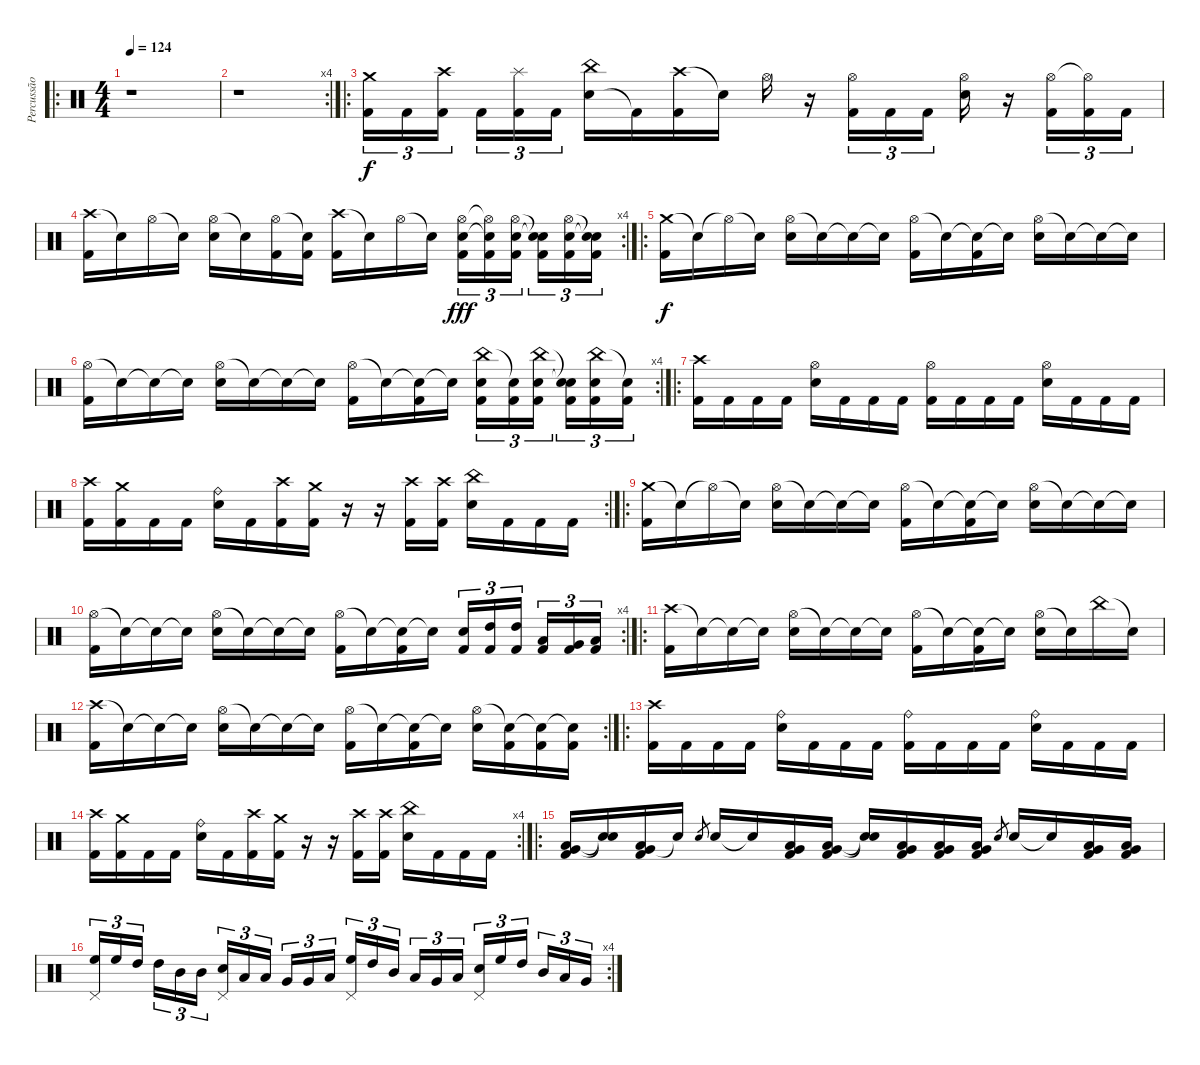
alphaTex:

\track ("Percussão" "Percussão") {instrument percussion}
\staff {score}
\articulation defaults
\ro
\ts (4 4)
\tempo 124
\clef neutral
\ks c
r.1{dy f volume 16} |
\rc 4
r.1 |
\ro
("Kick (hit) 2" "Crash medium (hit)").16{tu (3 2)} "Kick (hit) 2".16{tu (3 2)} ("Kick (hit) 2" "Crash high (hit)").16{tu (3 2)} "Kick (hit) 2".16{tu (3 2)} ("Kick (hit) 2" "Splash (hit)").16{tu (3 2)} "Kick (hit) 2".16{tu (3 2)} ("Electric Snare (hit)" "China (hit)").16 "Kick (hit) 2"{t}.16 ("Crash high (hit)" "Kick (hit) 2").16 "Snare (hit)"{t}.16 "Hi-Hat (open)".16 r.16 ("Hi-Hat (open)" "Kick (hit) 2").16{tu (3 2)} "Kick (hit) 2".16{tu (3 2)} "Kick (hit) 2".16{tu (3 2)} ("Hi-Hat (open)" "Electric Snare (hit)").16 r.16 ("Hi-Hat (open)" "Kick (hit) 2").16{tu (3 2)} ("Hi-Hat (open)"{t} "Kick (hit) 2").16{tu (3 2)} "Kick (hit) 2".16{tu (3 2)} |
\rc 4
("Crash high (hit)" "Kick (hit) 2").16 "Snare (hit)"{t}.16 "Hi-Hat (open)".16 "Snare (hit)"{t}.16 ("Hi-Hat (open)" "Electric Snare (hit)").16 "Snare (hit)"{t}.16 ("Hi-Hat (open)" "Kick (hit) 2").16 ("Snare (hit)"{t} "Kick (hit) 2").16 ("Crash high (hit)" "Kick (hit) 2").16 "Snare (hit)"{t}.16 "Hi-Hat (open)".16 "Snare (hit)"{t}.16 ("Electric Snare (hit)" "Hi-Hat (open)" "Kick (hit) 2").16{tu (3 2) dy fff} ("Electric Snare (hit)"{t} "Hi-Hat (open)"{t} "Kick (hit) 2").16{tu (3 2)} ("Electric Snare (hit)" "Hi-Hat (open)" "Kick (hit) 2").16{tu (3 2)} ("Snare (hit)"{t} "Snare (hit)"{t} "Kick (hit) 2").16{tu (3 2)} ("Electric Snare (hit)" "Hi-Hat (open)" "Kick (hit) 2").16{tu (3 2)} ("Snare (hit)"{t} "Snare (hit)"{t} "Kick (hit) 2").16{tu (3 2)} |
\ro
("Crash medium (hit)" "Kick (hit) 2").16{dy f} "Snare (hit)"{t}.16 "Hi-Hat (open)"{t}.16 "Snare (hit)"{t}.16 ("Hi-Hat (open)" "Electric Snare (hit)").16 "Snare (hit)"{t}.16 "Snare (hit)"{t}.16 "Snare (hit)"{t}.16 ("Hi-Hat (open)" "Kick (hit) 2").16 "Snare (hit)"{t}.16 ("Snare (hit)"{t} "Kick (hit) 2").16 "Snare (hit)"{t}.16 ("Hi-Hat (open)" "Electric Snare (hit)").16 "Snare (hit)"{t}.16 "Snare (hit)"{t}.16 "Snare (hit)"{t}.16 |
\rc 4
("Hi-Hat (open)" "Kick (hit) 2").16 "Snare (hit)"{t}.16 "Snare (hit)"{t}.16 "Snare (hit)"{t}.16 ("Hi-Hat (open)" "Electric Snare (hit)").16 "Snare (hit)"{t}.16 "Snare (hit)"{t}.16 "Snare (hit)"{t}.16 ("Hi-Hat (open)" "Kick (hit) 2").16 "Snare (hit)"{t}.16 ("Snare (hit)"{t} "Kick (hit) 2").16 "Snare (hit)"{t}.16 ("China (hit)" "Electric Snare (hit)" "Kick (hit) 2").16{tu (3 2)} ("Snare (hit)"{t} "Kick (hit) 2").16{tu (3 2)} ("China (hit)" "Electric Snare (hit)" "Kick (hit) 2").16{tu (3 2)} ("Snare (hit)"{t} "Snare (hit)"{t} "Kick (hit) 2").16{tu (3 2)} ("China (hit)" "Electric Snare (hit)" "Kick (hit) 2").16{tu (3 2)} ("Snare (hit)"{t} "Kick (hit) 2").16{tu (3 2)} |
\ro
("Crash high (hit)" "Kick (hit) 2").16 "Kick (hit) 2".16 "Kick (hit) 2".16 "Kick (hit) 2".16 ("Hi-Hat (open)" "Electric Snare (hit)").16 "Kick (hit) 2".16 "Kick (hit) 2".16 "Kick (hit) 2".16 ("Hi-Hat (open)" "Kick (hit) 2").16 "Kick (hit) 2".16 "Kick (hit) 2".16 "Kick (hit) 2".16 ("Hi-Hat (open)" "Electric Snare (hit)").16 "Kick (hit) 2".16 "Kick (hit) 2".16 "Kick (hit) 2".16 |
\rc 2
("Crash high (hit)" "Kick (hit) 2").16 ("Crash medium (hit)" "Kick (hit) 2").16 "Kick (hit) 2".16 "Kick (hit) 2".16 ("Ride (bell)" "Electric Snare (hit)").16 "Kick (hit) 2".16 ("Crash high (hit)" "Kick (hit) 2").16 ("Crash medium (hit)" "Kick (hit) 2").16 r.16 r.16 ("Crash high (hit)" "Kick (hit) 2").16 ("Crash high (hit)" "Kick (hit) 2").16 ("China (hit)" "Electric Snare (hit)").16 "Kick (hit) 2".16 "Kick (hit) 2".16 "Kick (hit) 2".16 |
\ro
("Crash medium (hit)" "Kick (hit) 2").16 "Snare (hit)"{t}.16 "Hi-Hat (open)"{t}.16 "Snare (hit)"{t}.16 ("Hi-Hat (open)" "Electric Snare (hit)").16 "Snare (hit)"{t}.16 "Snare (hit)"{t}.16 "Snare (hit)"{t}.16 ("Hi-Hat (open)" "Kick (hit) 2").16 "Snare (hit)"{t}.16 ("Snare (hit)"{t} "Kick (hit) 2").16 "Snare (hit)"{t}.16 ("Hi-Hat (open)" "Electric Snare (hit)").16 "Snare (hit)"{t}.16 "Snare (hit)"{t}.16 "Snare (hit)"{t}.16 |
\rc 4
("Hi-Hat (open)" "Kick (hit) 2").16 "Snare (hit)"{t}.16 "Snare (hit)"{t}.16 "Snare (hit)"{t}.16 ("Hi-Hat (open)" "Electric Snare (hit)").16 "Snare (hit)"{t}.16 "Snare (hit)"{t}.16 "Snare (hit)"{t}.16 ("Hi-Hat (open)" "Kick (hit) 2").16 "Snare (hit)"{t}.16 ("Snare (hit)"{t} "Kick (hit) 2").16 "Snare (hit)"{t}.16 ("Electric Snare (hit)" "Kick (hit) 2").16{tu (3 2)} ("High Tom (hit)" "Kick (hit) 2").16{tu (3 2)} ("High Tom (hit)" "Kick (hit) 2").16{tu (3 2)} ("Low Tom (hit)" "Kick (hit) 2").16{tu (3 2)} ("Very Low Tom (hit)" "Kick (hit) 2").16{tu (3 2)} ("Low Floor Tom (hit)" "Kick (hit) 2").16{tu (3 2)} |
\ro
("Crash high (hit)" "Kick (hit) 2").16 "Snare (hit)"{t}.16 "Snare (hit)"{t}.16 "Snare (hit)"{t}.16 ("Hi-Hat (open)" "Electric Snare (hit)").16 "Snare (hit)"{t}.16 "Snare (hit)"{t}.16 "Snare (hit)"{t}.16 ("Hi-Hat (open)" "Kick (hit) 2").16 "Snare (hit)"{t}.16 ("Snare (hit)"{t} "Kick (hit) 2").16 "Snare (hit)"{t}.16 ("Hi-Hat (open)" "Electric Snare (hit)").16 "Snare (hit)"{t}.16 "China (hit)".16 "Snare (hit)"{t}.16 |
\rc 2
("Crash high (hit)" "Kick (hit) 2").16 "Snare (hit)"{t}.16 "Snare (hit)"{t}.16 "Snare (hit)"{t}.16 ("Hi-Hat (open)" "Electric Snare (hit)").16 "Snare (hit)"{t}.16 "Snare (hit)"{t}.16 "Snare (hit)"{t}.16 ("Hi-Hat (open)" "Kick (hit) 2").16 "Snare (hit)"{t}.16 ("Snare (hit)"{t} "Kick (hit) 2").16 "Snare (hit)"{t}.16 ("Hi-Hat (open)" "Electric Snare (hit)").16 ("Snare (hit)"{t} "Kick (hit) 2").16 ("Snare (hit)"{t} "Kick (hit) 2").16 ("Snare (hit)"{t} "Kick (hit) 2").16 |
\ro
("Crash high (hit)" "Kick (hit) 2").16 "Kick (hit) 2".16 "Kick (hit) 2".16 "Kick (hit) 2".16 ("Ride (bell)" "Electric Snare (hit)").16 "Kick (hit) 2".16 "Kick (hit) 2".16 "Kick (hit) 2".16 ("Ride (bell)" "Kick (hit) 2").16 "Kick (hit) 2".16 "Kick (hit) 2".16 "Kick (hit) 2".16 ("Ride (bell)" "Electric Snare (hit)").16 "Kick (hit) 2".16 "Kick (hit) 2".16 "Kick (hit) 2".16 |
\rc 4
("Crash high (hit)" "Kick (hit) 2").16 ("Crash medium (hit)" "Kick (hit) 2").16 "Kick (hit) 2".16 "Kick (hit) 2".16 ("Ride (bell)" "Electric Snare (hit)").16 "Kick (hit) 2".16 ("Crash high (hit)" "Kick (hit) 2").16 ("Crash medium (hit)" "Kick (hit) 2").16 r.16 r.16 ("Crash high (hit)" "Kick (hit) 2").16 ("Crash high (hit)" "Kick (hit) 2").16 ("China (hit)" "Electric Snare (hit)").16 "Kick (hit) 2".16 "Kick (hit) 2".16 "Kick (hit) 2".16 |
\ro
("Low Floor Tom (hit)" "Very Low Tom (hit)" "Kick (hit) 2").16 ("Snare (hit)"{t} "Snare (hit)"{t}).16 ("Very Low Tom (hit)" "Low Floor Tom (hit)" "Kick (hit) 2").16 "Snare (hit)"{t}.16 "Electric Snare (hit)".8{gr} "Electric Snare (hit)".16 "Snare (hit)"{t}.16 ("Very Low Tom (hit)" "Low Tom (hit)" "Kick (hit) 2").16 ("Very Low Tom (hit)" "Low Tom (hit)" "Kick (hit) 2").16 ("Snare (hit)"{t} "Snare (hit)"{t}).16 ("Very Low Tom (hit)" "Low Tom (hit)" "Kick (hit) 2").16 ("Very Low Tom (hit)" "Low Tom (hit)" "Kick (hit) 2").16 ("Very Low Tom (hit)" "Low Tom (hit)" "Kick (hit) 2").16 "Electric Snare (hit)".8{gr} "Electric Snare (hit)".16 "Snare (hit)"{t}.16 ("Very Low Tom (hit)" "Low Tom (hit)" "Kick (hit) 2").16 ("Very Low Tom (hit)" "Low Tom (hit)" "Kick (hit) 2").16 |
\rc 4
("High Floor Tom (hit)" "Pedal Hi-Hat (hit)").16{tu (3 2)} "High Floor Tom (hit)".16{tu (3 2)} "High Tom (hit)".16{tu (3 2)} "High Tom (hit)".16{tu (3 2)} "Mid Tom (hit)".16{tu (3 2)} "Mid Tom (hit)".16{tu (3 2)} ("Electric Snare (hit)" "Pedal Hi-Hat (hit)").16{tu (3 2)} "Low Tom (hit)".16{tu (3 2)} "Low Tom (hit)".16{tu (3 2)} "Very Low Tom (hit)".16{tu (3 2)} "Very Low Tom (hit)".16{tu (3 2)} "Low Floor Tom (hit)".16{tu (3 2)} ("High Floor Tom (hit)" "Pedal Hi-Hat (hit)").16{tu (3 2)} "High Tom (hit)".16{tu (3 2)} "Mid Tom (hit)".16{tu (3 2)} "Low Tom (hit)".16{tu (3 2)} "Very Low Tom (hit)".16{tu (3 2)} "Low Floor Tom (hit)".16{tu (3 2)} ("Electric Snare (hit)" "Pedal Hi-Hat (hit)").16{tu (3 2)} "High Floor Tom (hit)".16{tu (3 2)} "High Tom (hit)".16{tu (3 2)} "Mid Tom (hit)".16{tu (3 2)} "Low Tom (hit)".16{tu (3 2)} "Very Low Tom (hit)".16{tu (3 2)}
